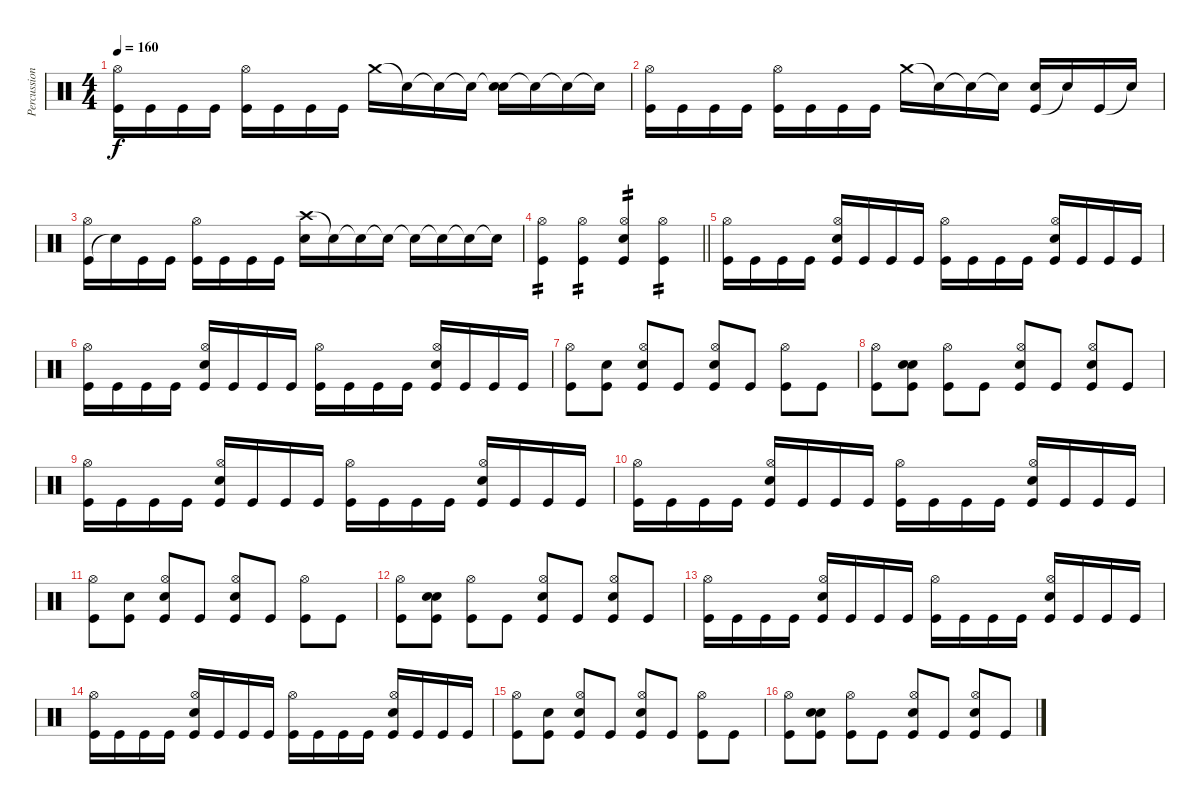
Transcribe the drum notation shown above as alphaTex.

\track ("Percussion" "Percussion") {instrument percussion}
\staff {score}
\articulation defaults
\ts (4 4)
\tempo 160
\clef neutral
\ks c
("Kick (hit)" "Hi-Hat (open)").16{dy f} "Kick (hit)".16 "Kick (hit)".16 "Kick (hit)".16 ("Kick (hit)" "Hi-Hat (open)").16 "Kick (hit)".16 "Kick (hit)".16 "Kick (hit)".16 "Crash medium (hit)".16 "Snare (hit)"{t}.16 "Snare (hit)"{t}.16 "Snare (hit)"{t}.16 ("Snare (hit)"{t} "Snare (hit) 2").16 "Snare (hit)"{t}.16 "Snare (hit)"{t}.16 "Snare (hit)"{t}.16 |
("Kick (hit)" "Hi-Hat (open)").16 "Kick (hit)".16 "Kick (hit)".16 "Kick (hit)".16 ("Kick (hit)" "Hi-Hat (open)").16 "Kick (hit)".16 "Kick (hit)".16 "Kick (hit)".16 "Crash medium (hit)".16 "Snare (hit)"{t}.16 "Snare (hit)"{t}.16 "Snare (hit)"{t}.16 ("Kick (hit)" "Snare (hit) 2").16 "Snare (hit)"{t}.16 "Kick (hit)".16 "Snare (hit)"{t}.16 |
("Kick (hit)" "Hi-Hat (open)").16 "Snare (hit)"{t}.16 "Kick (hit)".16 "Kick (hit)".16 ("Kick (hit)" "Hi-Hat (open)").16 "Kick (hit)".16 "Kick (hit)".16 "Kick (hit)".16 ("Crash high (hit)" "Snare (hit) 2").16 "Snare (hit)"{t}.16 "Snare (hit)"{t}.16 "Snare (hit)"{t}.16 "Snare (hit)"{t}.16 "Snare (hit)"{t}.16 "Snare (hit)"{t}.16 "Snare (hit)"{t}.16 |
\barLineRight lightlight
("Kick (hit)" "Hi-Hat (open)").4{tp 2} ("Kick (hit)" "Hi-Hat (open)").4{tp 2} ("Kick (hit)" "Snare (hit) 2" "Hi-Hat (open)").4{tp 2} ("Kick (hit)" "Hi-Hat (open)").4{tp 2} |
\section ("" "")
("Hi-Hat (open)" "Kick (hit)").16 "Kick (hit)".16 "Kick (hit)".16 "Kick (hit)".16 ("Hi-Hat (open)" "Snare (hit) 2" "Kick (hit)").16 "Kick (hit)".16 "Kick (hit)".16 "Kick (hit)".16 ("Hi-Hat (open)" "Kick (hit)").16 "Kick (hit)".16 "Kick (hit)".16 "Kick (hit)".16 ("Hi-Hat (open)" "Snare (hit) 2" "Kick (hit)").16 "Kick (hit)".16 "Kick (hit)".16 "Kick (hit)".16 |
("Hi-Hat (open)" "Kick (hit)").16 "Kick (hit)".16 "Kick (hit)".16 "Kick (hit)".16 ("Hi-Hat (open)" "Snare (hit) 2" "Kick (hit)").16 "Kick (hit)".16 "Kick (hit)".16 "Kick (hit)".16 ("Hi-Hat (open)" "Kick (hit)").16 "Kick (hit)".16 "Kick (hit)".16 "Kick (hit)".16 ("Hi-Hat (open)" "Snare (hit) 2" "Kick (hit)").16 "Kick (hit)".16 "Kick (hit)".16 "Kick (hit)".16 |
("Kick (hit)" "Hi-Hat (open)").8 ("Kick (hit)" "Snare (hit)").8 ("Kick (hit)" "Snare (hit) 2" "Hi-Hat (open)").8 "Kick (hit)".8 ("Kick (hit)" "Snare (hit) 2" "Hi-Hat (open)").8 "Kick (hit)".8 ("Kick (hit)" "Hi-Hat (open)").8 "Kick (hit)".8 |
("Kick (hit)" "Hi-Hat (open)").8 ("Kick (hit)" "Snare (hit) 2" "Snare (hit)").8 ("Kick (hit)" "Hi-Hat (open)").8 "Kick (hit)".8 ("Kick (hit)" "Snare (hit) 2" "Hi-Hat (open)").8 "Kick (hit)".8 ("Kick (hit)" "Snare (hit) 2" "Hi-Hat (open)").8 "Kick (hit)".8 |
("Hi-Hat (open)" "Kick (hit)").16 "Kick (hit)".16 "Kick (hit)".16 "Kick (hit)".16 ("Hi-Hat (open)" "Snare (hit) 2" "Kick (hit)").16 "Kick (hit)".16 "Kick (hit)".16 "Kick (hit)".16 ("Hi-Hat (open)" "Kick (hit)").16 "Kick (hit)".16 "Kick (hit)".16 "Kick (hit)".16 ("Hi-Hat (open)" "Snare (hit) 2" "Kick (hit)").16 "Kick (hit)".16 "Kick (hit)".16 "Kick (hit)".16 |
("Hi-Hat (open)" "Kick (hit)").16 "Kick (hit)".16 "Kick (hit)".16 "Kick (hit)".16 ("Hi-Hat (open)" "Snare (hit) 2" "Kick (hit)").16 "Kick (hit)".16 "Kick (hit)".16 "Kick (hit)".16 ("Hi-Hat (open)" "Kick (hit)").16 "Kick (hit)".16 "Kick (hit)".16 "Kick (hit)".16 ("Hi-Hat (open)" "Snare (hit) 2" "Kick (hit)").16 "Kick (hit)".16 "Kick (hit)".16 "Kick (hit)".16 |
("Kick (hit)" "Hi-Hat (open)").8 ("Kick (hit)" "Snare (hit)").8 ("Kick (hit)" "Snare (hit) 2" "Hi-Hat (open)").8 "Kick (hit)".8 ("Kick (hit)" "Snare (hit) 2" "Hi-Hat (open)").8 "Kick (hit)".8 ("Kick (hit)" "Hi-Hat (open)").8 "Kick (hit)".8 |
("Kick (hit)" "Hi-Hat (open)").8 ("Kick (hit)" "Snare (hit) 2" "Snare (hit)").8 ("Kick (hit)" "Hi-Hat (open)").8 "Kick (hit)".8 ("Kick (hit)" "Snare (hit) 2" "Hi-Hat (open)").8 "Kick (hit)".8 ("Kick (hit)" "Snare (hit) 2" "Hi-Hat (open)").8 "Kick (hit)".8 |
("Hi-Hat (open)" "Kick (hit)").16 "Kick (hit)".16 "Kick (hit)".16 "Kick (hit)".16 ("Hi-Hat (open)" "Snare (hit) 2" "Kick (hit)").16 "Kick (hit)".16 "Kick (hit)".16 "Kick (hit)".16 ("Hi-Hat (open)" "Kick (hit)").16 "Kick (hit)".16 "Kick (hit)".16 "Kick (hit)".16 ("Hi-Hat (open)" "Snare (hit) 2" "Kick (hit)").16 "Kick (hit)".16 "Kick (hit)".16 "Kick (hit)".16 |
("Hi-Hat (open)" "Kick (hit)").16 "Kick (hit)".16 "Kick (hit)".16 "Kick (hit)".16 ("Hi-Hat (open)" "Snare (hit) 2" "Kick (hit)").16 "Kick (hit)".16 "Kick (hit)".16 "Kick (hit)".16 ("Hi-Hat (open)" "Kick (hit)").16 "Kick (hit)".16 "Kick (hit)".16 "Kick (hit)".16 ("Hi-Hat (open)" "Snare (hit) 2" "Kick (hit)").16 "Kick (hit)".16 "Kick (hit)".16 "Kick (hit)".16 |
("Kick (hit)" "Hi-Hat (open)").8 ("Kick (hit)" "Snare (hit)").8 ("Kick (hit)" "Snare (hit) 2" "Hi-Hat (open)").8 "Kick (hit)".8 ("Kick (hit)" "Snare (hit) 2" "Hi-Hat (open)").8 "Kick (hit)".8 ("Kick (hit)" "Hi-Hat (open)").8 "Kick (hit)".8 |
("Kick (hit)" "Hi-Hat (open)").8 ("Kick (hit)" "Snare (hit) 2" "Snare (hit)").8 ("Kick (hit)" "Hi-Hat (open)").8 "Kick (hit)".8 ("Kick (hit)" "Snare (hit) 2" "Hi-Hat (open)").8 "Kick (hit)".8 ("Kick (hit)" "Snare (hit) 2" "Hi-Hat (open)").8 "Kick (hit)".8
